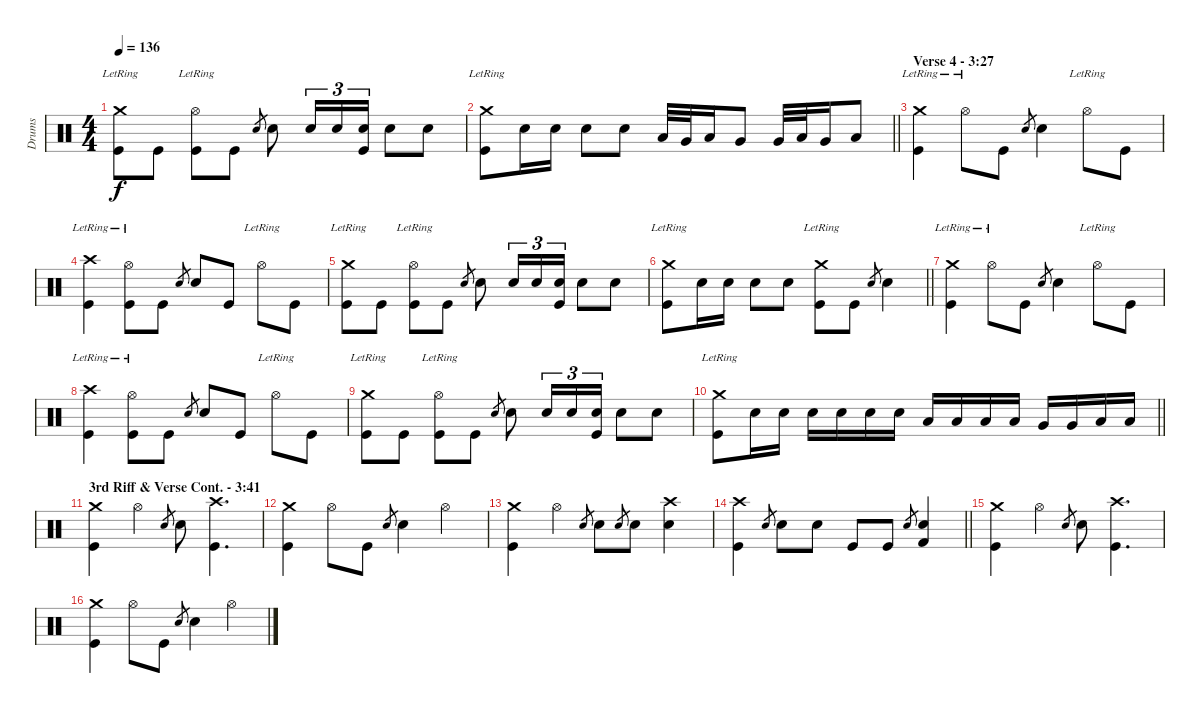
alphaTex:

\track ("Drums" "Drums") {instrument percussion}
\staff {score}
\articulation defaults
\ts (4 4)
\tempo 136
\clef neutral
\ks c
("Crash medium (hit)"{lr} "Kick (hit)").8{dy f} "Kick (hit)".8 ("Hi-Hat (open)"{lr} "Kick (hit)").8 "Kick (hit)".8 "Snare (hit) 2".8{gr} "Snare (hit) 2".8 "Snare (hit) 2".16{tu (3 2)} "Snare (hit) 2".16{tu (3 2)} ("Snare (hit) 2" "Kick (hit)").16{tu (3 2)} "Snare (hit) 2".8 "Snare (hit) 2".8 |
\barLineRight lightlight
("Crash medium (hit)"{lr} "Kick (hit)").8 "Snare (hit) 2".16 "Snare (hit) 2".16 "Snare (hit) 2".8 "Snare (hit) 2".8 "Low Tom (hit)".32 "Very Low Tom (hit)".32 "Low Tom (hit)".16 "Very Low Tom (hit)".8 "Very Low Tom (hit)".32 "Low Floor Tom (hit)".32 "Very Low Tom (hit)".16 "Low Floor Tom (hit)".8 |
\section ("" "Verse 4 - 3:27")
("Crash medium (hit)"{lr} "Kick (hit)").4 "Hi-Hat (open)"{lr}.8 "Kick (hit)".8 "Snare (hit) 2".8{gr} "Snare (hit) 2".4 "Hi-Hat (open)"{lr}.8 "Kick (hit)".8 |
("Crash high (hit)"{lr} "Kick (hit)").4 ("Hi-Hat (open)"{lr} "Kick (hit)").8 "Kick (hit)".8 "Snare (hit) 2".8{gr} "Snare (hit) 2".8 "Kick (hit)".8 "Hi-Hat (open)"{lr}.8 "Kick (hit)".8 |
("Crash medium (hit)"{lr} "Kick (hit)").8 "Kick (hit)".8 ("Hi-Hat (open)"{lr} "Kick (hit)").8 "Kick (hit)".8 "Snare (hit) 2".8{gr} "Snare (hit) 2".8 "Snare (hit) 2".16{tu (3 2)} "Snare (hit) 2".16{tu (3 2)} ("Snare (hit) 2" "Kick (hit)").16{tu (3 2)} "Snare (hit) 2".8 "Snare (hit) 2".8 |
\barLineRight lightlight
("Crash medium (hit)"{lr} "Kick (hit)").8 "Snare (hit) 2".16 "Snare (hit) 2".16 "Snare (hit) 2".8 "Snare (hit) 2".8 ("Crash medium (hit)"{lr} "Kick (hit)").8 "Kick (hit)".8 "Snare (hit) 2".8{gr} "Snare (hit) 2".4 |
("Crash medium (hit)"{lr} "Kick (hit)").4 "Hi-Hat (open)"{lr}.8 "Kick (hit)".8 "Snare (hit) 2".8{gr} "Snare (hit) 2".4 "Hi-Hat (open)"{lr}.8 "Kick (hit)".8 |
("Crash high (hit)"{lr} "Kick (hit)").4 ("Hi-Hat (open)"{lr} "Kick (hit)").8 "Kick (hit)".8 "Snare (hit) 2".8{gr} "Snare (hit) 2".8 "Kick (hit)".8 "Hi-Hat (open)"{lr}.8 "Kick (hit)".8 |
("Crash medium (hit)"{lr} "Kick (hit)").8 "Kick (hit)".8 ("Hi-Hat (open)"{lr} "Kick (hit)").8 "Kick (hit)".8 "Snare (hit) 2".8{gr} "Snare (hit) 2".8 "Snare (hit) 2".16{tu (3 2)} "Snare (hit) 2".16{tu (3 2)} ("Snare (hit) 2" "Kick (hit)").16{tu (3 2)} "Snare (hit) 2".8 "Snare (hit) 2".8 |
\barLineRight lightlight
("Crash medium (hit)"{lr} "Kick (hit)").8 "Snare (hit) 2".16 "Snare (hit) 2".16 "Snare (hit) 2".16 "Snare (hit) 2".16 "Snare (hit) 2".16 "Snare (hit) 2".16 "Low Tom (hit)".16 "Low Tom (hit)".16 "Low Tom (hit)".16 "Low Tom (hit)".16 "Very Low Tom (hit)".16 "Very Low Tom (hit)".16 "Low Floor Tom (hit)".16 "Low Floor Tom (hit)".16 |
\section ("" "3rd Riff & Verse Cont. - 3:41")
("Crash medium (hit)" "Kick (hit)").4 "Hi-Hat (open)".4 "Snare (hit) 2".8{gr} "Snare (hit) 2".8 ("Crash high (hit)" "Kick (hit)").4{d} |
("Crash medium (hit)" "Kick (hit)").4 "Hi-Hat (open)".8 "Kick (hit)".8 "Snare (hit) 2".8{gr} "Snare (hit) 2".4 "Hi-Hat (open)".4 |
("Crash medium (hit)" "Kick (hit)").4 "Hi-Hat (open)".4 "Snare (hit) 2".8{gr} "Snare (hit) 2".8 "Snare (hit) 2".8{gr} "Snare (hit) 2".8 ("Crash high (hit)" "Snare (hit) 2").4 |
\barLineRight lightlight
("Crash high (hit)" "Kick (hit)").4 "Snare (hit) 2".8{gr} "Snare (hit) 2".8 "Snare (hit) 2".8 "Kick (hit)".8 "Kick (hit)".8 "Snare (hit) 2".8{gr} ("Snare (hit) 2" "Kick (hit) 2").4 |
("Crash medium (hit)" "Kick (hit)").4 "Hi-Hat (open)".4 "Snare (hit) 2".8{gr} "Snare (hit) 2".8 ("Crash high (hit)" "Kick (hit)").4{d} |
("Crash medium (hit)" "Kick (hit)").4 "Hi-Hat (open)".8 "Kick (hit)".8 "Snare (hit) 2".8{gr} "Snare (hit) 2".4 "Hi-Hat (open)".4
